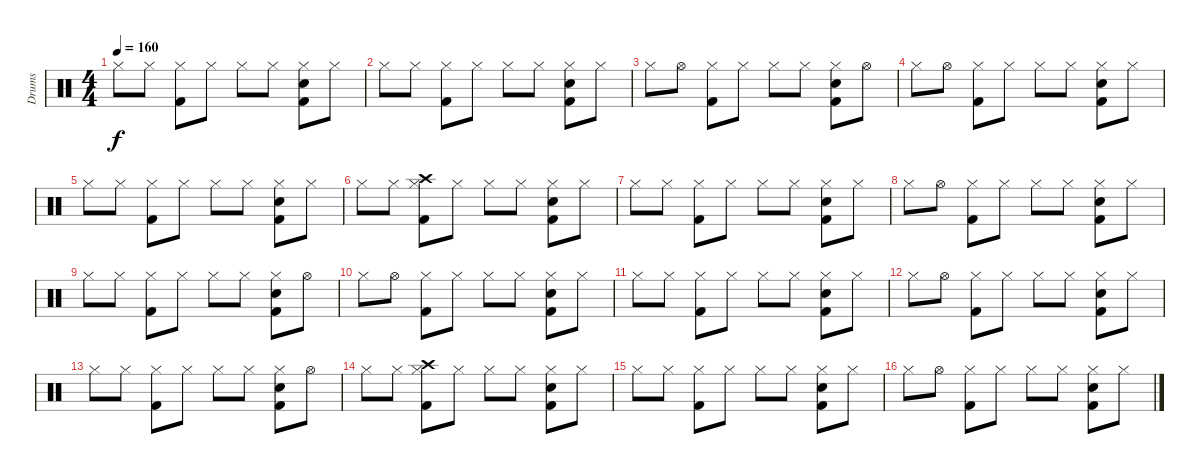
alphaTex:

\track ("Drums" "Drums") {instrument percussion}
\staff {score}
\articulation defaults
\ts (4 4)
\tempo 160
\clef neutral
\ks c "Hi-Hat (closed)".8{dy f} "Hi-Hat (closed)".8
("Kick (hit) 2" "Hi-Hat (closed)").8 "Hi-Hat (closed)".8 "Hi-Hat (closed)".8 "Hi-Hat (closed)".8 ("Snare (hit) 2" "Kick (hit) 2" "Hi-Hat (closed)").8 "Hi-Hat (closed)".8 |
"Hi-Hat (closed)".8 "Hi-Hat (closed)".8 ("Kick (hit) 2" "Hi-Hat (closed)").8 "Hi-Hat (closed)".8 "Hi-Hat (closed)".8 "Hi-Hat (closed)".8 ("Snare (hit) 2" "Kick (hit) 2" "Hi-Hat (closed)").8 "Hi-Hat (closed)".8 |
"Hi-Hat (closed)".8 "Hi-Hat (open)".8 ("Kick (hit) 2" "Hi-Hat (closed)").8 "Hi-Hat (closed)".8 "Hi-Hat (closed)".8 "Hi-Hat (closed)".8 ("Snare (hit) 2" "Kick (hit) 2" "Hi-Hat (closed)").8 "Hi-Hat (open)".8 |
"Hi-Hat (closed)".8 "Hi-Hat (open)".8 ("Kick (hit) 2" "Hi-Hat (closed)").8 "Hi-Hat (closed)".8 "Hi-Hat (closed)".8 "Hi-Hat (closed)".8 ("Snare (hit) 2" "Kick (hit) 2" "Hi-Hat (closed)").8 "Hi-Hat (closed)".8 |
"Hi-Hat (closed)".8 "Hi-Hat (closed)".8 ("Kick (hit) 2" "Hi-Hat (closed)").8 "Hi-Hat (closed)".8 "Hi-Hat (closed)".8 "Hi-Hat (closed)".8 ("Snare (hit) 2" "Kick (hit) 2" "Hi-Hat (closed)").8 "Hi-Hat (closed)".8 |
"Hi-Hat (closed)".8 "Hi-Hat (closed)".8 ("Crash high (hit)" "Kick (hit) 2" "Hi-Hat (closed)").8 "Hi-Hat (closed)".8 "Hi-Hat (closed)".8 "Hi-Hat (closed)".8 ("Snare (hit) 2" "Kick (hit) 2" "Hi-Hat (closed)").8 "Hi-Hat (closed)".8 |
"Hi-Hat (closed)".8 "Hi-Hat (closed)".8 ("Kick (hit) 2" "Hi-Hat (closed)").8 "Hi-Hat (closed)".8 "Hi-Hat (closed)".8 "Hi-Hat (closed)".8 ("Snare (hit) 2" "Kick (hit) 2" "Hi-Hat (closed)").8 "Hi-Hat (closed)".8 |
"Hi-Hat (closed)".8 "Hi-Hat (open)".8 ("Kick (hit) 2" "Hi-Hat (closed)").8 "Hi-Hat (closed)".8 "Hi-Hat (closed)".8 "Hi-Hat (closed)".8 ("Snare (hit) 2" "Kick (hit) 2" "Hi-Hat (closed)").8 "Hi-Hat (closed)".8 |
"Hi-Hat (closed)".8 "Hi-Hat (closed)".8 ("Kick (hit) 2" "Hi-Hat (closed)").8 "Hi-Hat (closed)".8 "Hi-Hat (closed)".8 "Hi-Hat (closed)".8 ("Snare (hit) 2" "Kick (hit) 2" "Hi-Hat (closed)").8 "Hi-Hat (open)".8 |
"Hi-Hat (closed)".8 "Hi-Hat (open)".8 ("Kick (hit) 2" "Hi-Hat (closed)").8 "Hi-Hat (closed)".8 "Hi-Hat (closed)".8 "Hi-Hat (closed)".8 ("Snare (hit) 2" "Kick (hit) 2" "Hi-Hat (closed)").8 "Hi-Hat (closed)".8 |
"Hi-Hat (closed)".8 "Hi-Hat (closed)".8 ("Kick (hit) 2" "Hi-Hat (closed)").8 "Hi-Hat (closed)".8 "Hi-Hat (closed)".8 "Hi-Hat (closed)".8 ("Snare (hit) 2" "Kick (hit) 2" "Hi-Hat (closed)").8 "Hi-Hat (closed)".8 |
"Hi-Hat (closed)".8 "Hi-Hat (open)".8 ("Kick (hit) 2" "Hi-Hat (closed)").8 "Hi-Hat (closed)".8 "Hi-Hat (closed)".8 "Hi-Hat (closed)".8 ("Snare (hit) 2" "Kick (hit) 2" "Hi-Hat (closed)").8 "Hi-Hat (closed)".8 |
"Hi-Hat (closed)".8 "Hi-Hat (closed)".8 ("Kick (hit) 2" "Hi-Hat (closed)").8 "Hi-Hat (closed)".8 "Hi-Hat (closed)".8 "Hi-Hat (closed)".8 ("Snare (hit) 2" "Kick (hit) 2" "Hi-Hat (closed)").8 "Hi-Hat (open)".8 |
"Hi-Hat (closed)".8 "Hi-Hat (closed)".8 ("Crash high (hit)" "Kick (hit) 2" "Hi-Hat (closed)").8 "Hi-Hat (closed)".8 "Hi-Hat (closed)".8 "Hi-Hat (closed)".8 ("Snare (hit) 2" "Kick (hit) 2" "Hi-Hat (closed)").8 "Hi-Hat (closed)".8 |
"Hi-Hat (closed)".8 "Hi-Hat (closed)".8 ("Kick (hit) 2" "Hi-Hat (closed)").8 "Hi-Hat (closed)".8 "Hi-Hat (closed)".8 "Hi-Hat (closed)".8 ("Snare (hit) 2" "Kick (hit) 2" "Hi-Hat (closed)").8 "Hi-Hat (closed)".8 |
"Hi-Hat (closed)".8 "Hi-Hat (open)".8 ("Kick (hit) 2" "Hi-Hat (closed)").8 "Hi-Hat (closed)".8 "Hi-Hat (closed)".8 "Hi-Hat (closed)".8 ("Snare (hit) 2" "Kick (hit) 2" "Hi-Hat (closed)").8 "Hi-Hat (closed)".8
